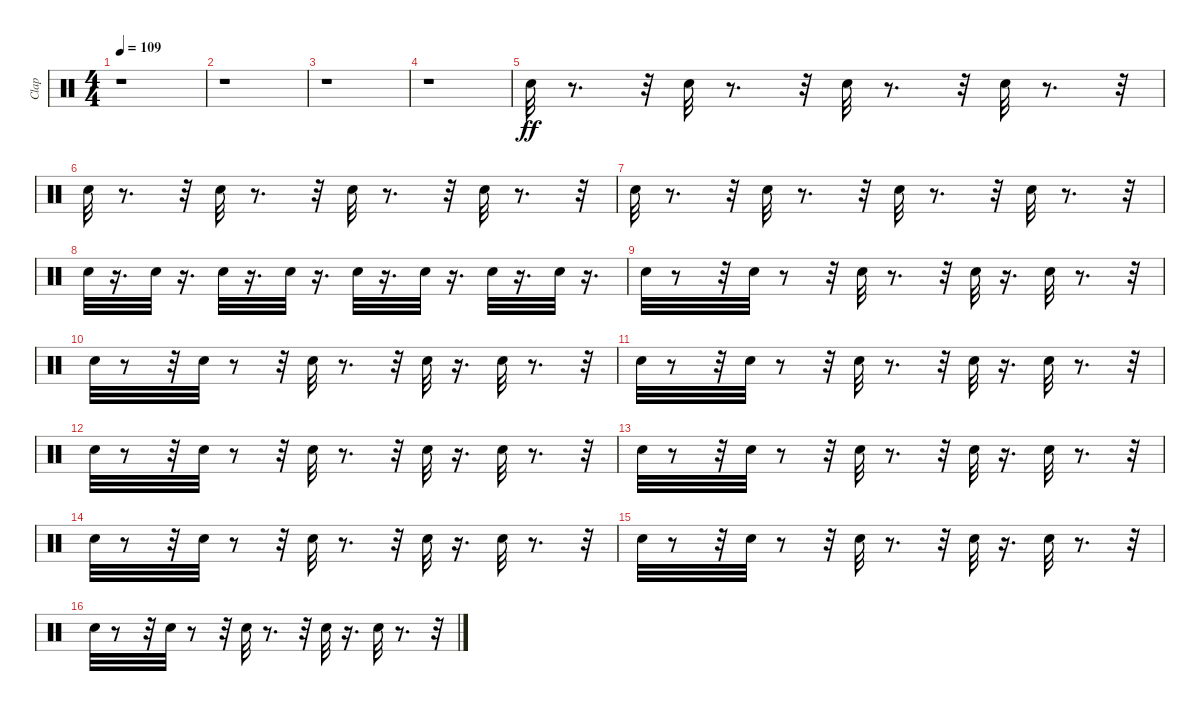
\track ("Clap" "Clap") {instrument percussion}
\staff {score}
\articulation defaults
\ts (4 4)
\tempo 109
\clef neutral
\ks c
r.1{dy ff} |
r.1 |
r.1 |
r.1 |
"Hand Clap (hit)".32 r.8{d} r.32 "Hand Clap (hit)".32 r.8{d} r.32 "Hand Clap (hit)".32 r.8{d} r.32 "Hand Clap (hit)".32 r.8{d} r.32 |
"Hand Clap (hit)".32 r.8{d} r.32 "Hand Clap (hit)".32 r.8{d} r.32 "Hand Clap (hit)".32 r.8{d} r.32 "Hand Clap (hit)".32 r.8{d} r.32 |
"Hand Clap (hit)".32 r.8{d} r.32 "Hand Clap (hit)".32 r.8{d} r.32 "Hand Clap (hit)".32 r.8{d} r.32 "Hand Clap (hit)".32 r.8{d} r.32 |
"Hand Clap (hit)".32 r.16{d} "Hand Clap (hit)".32 r.16{d} "Hand Clap (hit)".32 r.16{d} "Hand Clap (hit)".32 r.16{d} "Hand Clap (hit)".32 r.16{d} "Hand Clap (hit)".32 r.16{d} "Hand Clap (hit)".32 r.16{d} "Hand Clap (hit)".32 r.16{d} |
"Hand Clap (hit)".32 r.8 r.32 "Hand Clap (hit)".32 r.8 r.32 "Hand Clap (hit)".32 r.8{d} r.32 "Hand Clap (hit)".32 r.16{d} "Hand Clap (hit)".32 r.8{d} r.32 |
"Hand Clap (hit)".32 r.8 r.32 "Hand Clap (hit)".32 r.8 r.32 "Hand Clap (hit)".32 r.8{d} r.32 "Hand Clap (hit)".32 r.16{d} "Hand Clap (hit)".32 r.8{d} r.32 |
"Hand Clap (hit)".32 r.8 r.32 "Hand Clap (hit)".32 r.8 r.32 "Hand Clap (hit)".32 r.8{d} r.32 "Hand Clap (hit)".32 r.16{d} "Hand Clap (hit)".32 r.8{d} r.32 |
"Hand Clap (hit)".32 r.8 r.32 "Hand Clap (hit)".32 r.8 r.32 "Hand Clap (hit)".32 r.8{d} r.32 "Hand Clap (hit)".32 r.16{d} "Hand Clap (hit)".32 r.8{d} r.32 |
"Hand Clap (hit)".32 r.8 r.32 "Hand Clap (hit)".32 r.8 r.32 "Hand Clap (hit)".32 r.8{d} r.32 "Hand Clap (hit)".32 r.16{d} "Hand Clap (hit)".32 r.8{d} r.32 |
"Hand Clap (hit)".32 r.8 r.32 "Hand Clap (hit)".32 r.8 r.32 "Hand Clap (hit)".32 r.8{d} r.32 "Hand Clap (hit)".32 r.16{d} "Hand Clap (hit)".32 r.8{d} r.32 |
"Hand Clap (hit)".32 r.8 r.32 "Hand Clap (hit)".32 r.8 r.32 "Hand Clap (hit)".32 r.8{d} r.32 "Hand Clap (hit)".32 r.16{d} "Hand Clap (hit)".32 r.8{d} r.32 |
"Hand Clap (hit)".32 r.8 r.32 "Hand Clap (hit)".32 r.8 r.32 "Hand Clap (hit)".32 r.8{d} r.32 "Hand Clap (hit)".32 r.16{d} "Hand Clap (hit)".32 r.8{d} r.32
